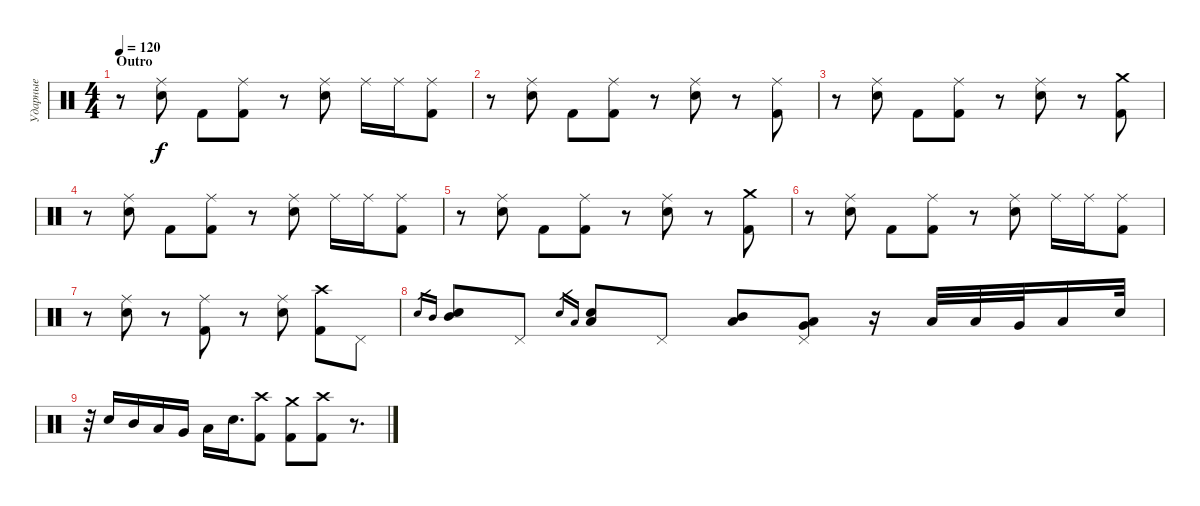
\track ("Ударные" "Ударные") {instrument percussion}
\staff {score}
\articulation defaults
\ts (4 4)
\section ("" "Outro")
\tempo 120
\clef neutral
\ks c
r.8{dy f} ("Ride (middle)" "Electric Snare (hit)").8 "Kick (hit) 2".8 ("Ride (middle)" "Kick (hit) 2").8 r.8 ("Ride (middle)" "Electric Snare (hit)").8 "Ride (middle)".16 "Ride (middle)".16 ("Ride (middle)" "Kick (hit) 2").8 |
r.8 ("Ride (middle)" "Electric Snare (hit)").8 "Kick (hit) 2".8 ("Ride (middle)" "Kick (hit) 2").8 r.8 ("Ride (middle)" "Electric Snare (hit)").8 r.8 ("Ride (middle)" "Kick (hit) 2").8 |
r.8 ("Ride (middle)" "Electric Snare (hit)").8 "Kick (hit) 2".8 ("Ride (middle)" "Kick (hit) 2").8 r.8 ("Ride (middle)" "Electric Snare (hit)").8 r.8 ("Crash medium (hit)" "Kick (hit) 2").8 |
r.8 ("Ride (middle)" "Electric Snare (hit)").8 "Kick (hit) 2".8 ("Ride (middle)" "Kick (hit) 2").8 r.8 ("Ride (middle)" "Electric Snare (hit)").8 "Ride (middle)".16 "Ride (middle)".16 ("Ride (middle)" "Kick (hit) 2").8 |
r.8 ("Ride (middle)" "Electric Snare (hit)").8 "Kick (hit) 2".8 ("Ride (middle)" "Kick (hit) 2").8 r.8 ("Ride (middle)" "Electric Snare (hit)").8 r.8 ("Crash medium (hit)" "Kick (hit) 2").8 |
r.8 ("Ride (middle)" "Electric Snare (hit)").8 "Kick (hit) 2".8 ("Ride (middle)" "Kick (hit) 2").8 r.8 ("Ride (middle)" "Electric Snare (hit)").8 "Ride (middle)".16 "Ride (middle)".16 ("Ride (middle)" "Kick (hit) 2").8 |
r.8 ("Ride (middle)" "Electric Snare (hit)").8 r.8 ("Ride (middle)" "Kick (hit) 2").8 r.8 ("Ride (middle)" "Electric Snare (hit)").8 ("Crash high (hit)" "Kick (hit) 2").8 "Pedal Hi-Hat (hit)".8 |
"Electric Snare (hit)".16{gr} "Mid Tom (hit)".16{gr} ("Electric Snare (hit)" "Mid Tom (hit)").8 "Pedal Hi-Hat (hit)".8 "Electric Snare (hit)".16{gr} "Low Tom (hit)".16{gr} ("Electric Snare (hit)" "Low Tom (hit)").8 "Pedal Hi-Hat (hit)".8 ("Low Tom (hit)" "Mid Tom (hit)").8 ("Pedal Hi-Hat (hit)" "Very Low Tom (hit)" "Low Tom (hit)").8 r.16 "Low Tom (hit)".32 "Low Tom (hit)".32 "Very Low Tom (hit)".32 "Low Floor Tom (hit)".16 "Electric Snare (hit)".32 |
r.32 "Electric Snare (hit)".16 "Mid Tom (hit)".16 "Low Tom (hit)".16 "Very Low Tom (hit)".16 "Low Floor Tom (hit)".16 "Electric Snare (hit)".16{d} ("Crash high (hit)" "Kick (hit) 2").8 ("Crash medium (hit)" "Kick (hit) 2").8 ("Crash high (hit)" "Kick (hit) 2").8 r.8{d}
